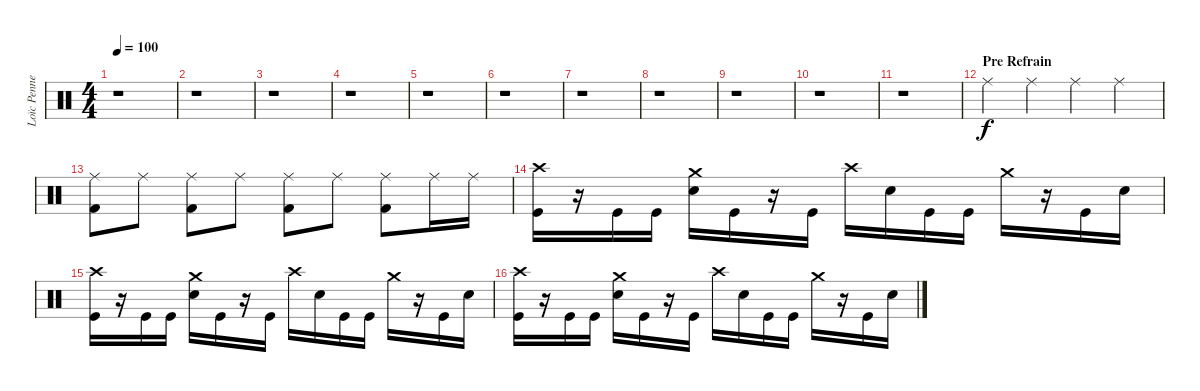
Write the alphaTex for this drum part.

\track ("Loïc Pennequin ( Batterie ) " "Loïc Penne") {instrument percussion}
\staff {score}
\articulation defaults
\ts (4 4)
\tempo 100
\clef neutral
\ks c
r.1{dy fff} |
r.1 |
r.1 |
r.1 |
r.1 |
r.1 |
r.1 |
r.1 |
r.1 |
r.1 |
r.1 |
\section ("" "Pre Refrain")
"Ride (middle)".4{dy f} "Ride (middle)".4 "Ride (middle)".4 "Ride (middle)".4 |
("Ride (middle)" "Kick (hit) 2").8 "Ride (middle)".8 ("Ride (middle)" "Kick (hit) 2").8 "Ride (middle)".8 ("Ride (middle)" "Kick (hit) 2").8 "Ride (middle)".8 ("Ride (middle)" "Kick (hit) 2").8 "Ride (middle)".16 "Ride (middle)".16 |
("Crash high (hit)" "Kick (hit)").16 r.16 "Kick (hit)".16 "Kick (hit)".16 ("Crash medium (hit)" "Electric Snare (hit)").16 "Kick (hit)".16 r.16 "Kick (hit)".16 "Crash high (hit)".16 "Electric Snare (hit)".16 "Kick (hit)".16 "Kick (hit)".16 "Crash medium (hit)".16 r.16 "Kick (hit)".16 "Electric Snare (hit)".16 |
("Crash high (hit)" "Kick (hit)").16 r.16 "Kick (hit)".16 "Kick (hit)".16 ("Crash medium (hit)" "Electric Snare (hit)").16 "Kick (hit)".16 r.16 "Kick (hit)".16 "Crash high (hit)".16 "Electric Snare (hit)".16 "Kick (hit)".16 "Kick (hit)".16 "Crash medium (hit)".16 r.16 "Kick (hit)".16 "Electric Snare (hit)".16 |
("Crash high (hit)" "Kick (hit)").16 r.16 "Kick (hit)".16 "Kick (hit)".16 ("Crash medium (hit)" "Electric Snare (hit)").16 "Kick (hit)".16 r.16 "Kick (hit)".16 "Crash high (hit)".16 "Electric Snare (hit)".16 "Kick (hit)".16 "Kick (hit)".16 "Crash medium (hit)".16 r.16 "Kick (hit)".16 "Electric Snare (hit)".16
